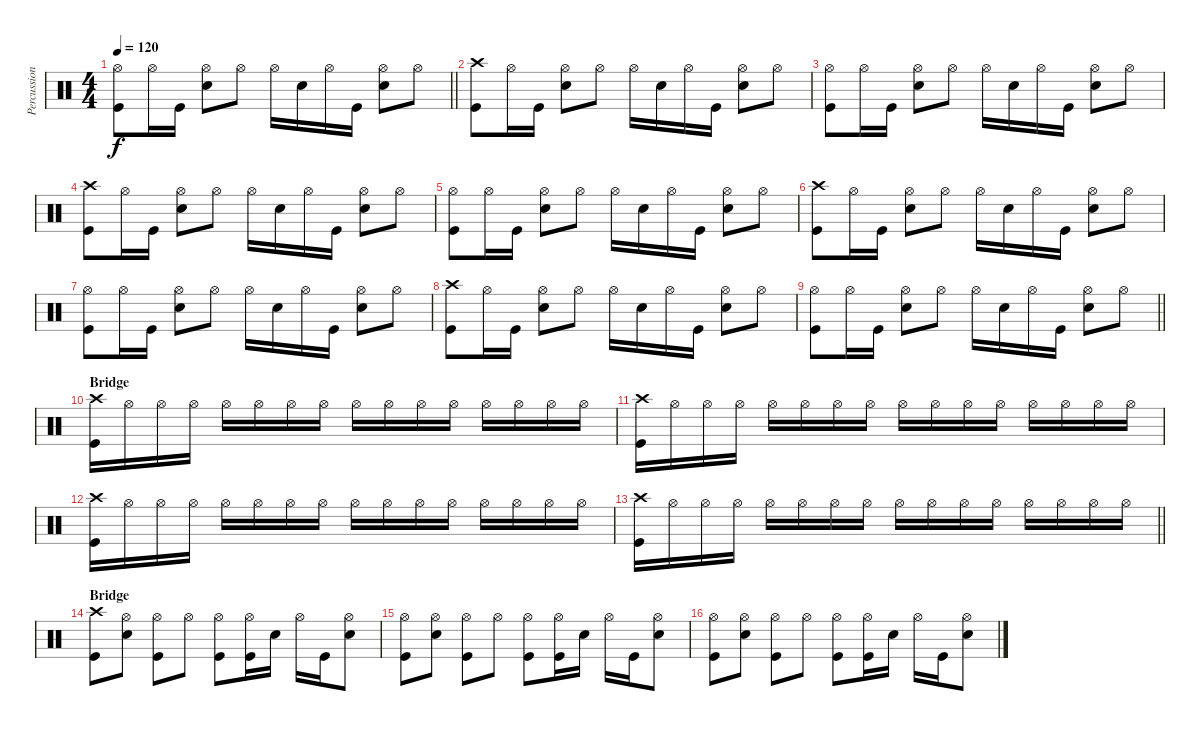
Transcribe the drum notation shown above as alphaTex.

\track ("Percussion" "Percussion") {instrument percussion}
\staff {score}
\articulation defaults
\ts (4 4)
\tempo 120
\clef neutral
\barLineRight lightlight
\ks c
("Hi-Hat (open)" "Kick (hit)").8{dy f} "Hi-Hat (open)".16 "Kick (hit)".16 ("Hi-Hat (open)" "Snare (hit) 2").8 "Hi-Hat (open)".8 "Hi-Hat (open)".16 "Snare (hit) 2".16 "Hi-Hat (open)".16 "Kick (hit)".16 ("Hi-Hat (open)" "Snare (hit) 2").8 "Hi-Hat (open)".8 |
("Crash high (hit)" "Kick (hit)").8 "Hi-Hat (open)".16 "Kick (hit)".16 ("Hi-Hat (open)" "Snare (hit) 2").8 "Hi-Hat (open)".8 "Hi-Hat (open)".16 "Snare (hit) 2".16 "Hi-Hat (open)".16 "Kick (hit)".16 ("Hi-Hat (open)" "Snare (hit) 2").8 "Hi-Hat (open)".8 |
("Hi-Hat (open)" "Kick (hit)").8 "Hi-Hat (open)".16 "Kick (hit)".16 ("Hi-Hat (open)" "Snare (hit) 2").8 "Hi-Hat (open)".8 "Hi-Hat (open)".16 "Snare (hit) 2".16 "Hi-Hat (open)".16 "Kick (hit)".16 ("Hi-Hat (open)" "Snare (hit) 2").8 "Hi-Hat (open)".8 |
("Crash high (hit)" "Kick (hit)").8 "Hi-Hat (open)".16 "Kick (hit)".16 ("Hi-Hat (open)" "Snare (hit) 2").8 "Hi-Hat (open)".8 "Hi-Hat (open)".16 "Snare (hit) 2".16 "Hi-Hat (open)".16 "Kick (hit)".16 ("Hi-Hat (open)" "Snare (hit) 2").8 "Hi-Hat (open)".8 |
("Hi-Hat (open)" "Kick (hit)").8 "Hi-Hat (open)".16 "Kick (hit)".16 ("Hi-Hat (open)" "Snare (hit) 2").8 "Hi-Hat (open)".8 "Hi-Hat (open)".16 "Snare (hit) 2".16 "Hi-Hat (open)".16 "Kick (hit)".16 ("Hi-Hat (open)" "Snare (hit) 2").8 "Hi-Hat (open)".8 |
("Crash high (hit)" "Kick (hit)").8 "Hi-Hat (open)".16 "Kick (hit)".16 ("Hi-Hat (open)" "Snare (hit) 2").8 "Hi-Hat (open)".8 "Hi-Hat (open)".16 "Snare (hit) 2".16 "Hi-Hat (open)".16 "Kick (hit)".16 ("Hi-Hat (open)" "Snare (hit) 2").8 "Hi-Hat (open)".8 |
("Hi-Hat (open)" "Kick (hit)").8 "Hi-Hat (open)".16 "Kick (hit)".16 ("Hi-Hat (open)" "Snare (hit) 2").8 "Hi-Hat (open)".8 "Hi-Hat (open)".16 "Snare (hit) 2".16 "Hi-Hat (open)".16 "Kick (hit)".16 ("Hi-Hat (open)" "Snare (hit) 2").8 "Hi-Hat (open)".8 |
("Crash high (hit)" "Kick (hit)").8 "Hi-Hat (open)".16 "Kick (hit)".16 ("Hi-Hat (open)" "Snare (hit) 2").8 "Hi-Hat (open)".8 "Hi-Hat (open)".16 "Snare (hit) 2".16 "Hi-Hat (open)".16 "Kick (hit)".16 ("Hi-Hat (open)" "Snare (hit) 2").8 "Hi-Hat (open)".8 |
\barLineRight lightlight
("Hi-Hat (open)" "Kick (hit)").8 "Hi-Hat (open)".16 "Kick (hit)".16 ("Hi-Hat (open)" "Snare (hit) 2").8 "Hi-Hat (open)".8 "Hi-Hat (open)".16 "Snare (hit) 2".16 "Hi-Hat (open)".16 "Kick (hit)".16 ("Hi-Hat (open)" "Snare (hit) 2").8 "Hi-Hat (open)".8 |
\section ("" "Bridge")
("Crash high (hit)" "Kick (hit)").16 "Hi-Hat (open)".16 "Hi-Hat (open)".16 "Hi-Hat (open)".16 "Hi-Hat (open)".16 "Hi-Hat (open)".16 "Hi-Hat (open)".16 "Hi-Hat (open)".16 "Hi-Hat (open)".16 "Hi-Hat (open)".16 "Hi-Hat (open)".16 "Hi-Hat (open)".16 "Hi-Hat (open)".16 "Hi-Hat (open)".16 "Hi-Hat (open)".16 "Hi-Hat (open)".16 |
("Crash high (hit)" "Kick (hit)").16 "Hi-Hat (open)".16 "Hi-Hat (open)".16 "Hi-Hat (open)".16 "Hi-Hat (open)".16 "Hi-Hat (open)".16 "Hi-Hat (open)".16 "Hi-Hat (open)".16 "Hi-Hat (open)".16 "Hi-Hat (open)".16 "Hi-Hat (open)".16 "Hi-Hat (open)".16 "Hi-Hat (open)".16 "Hi-Hat (open)".16 "Hi-Hat (open)".16 "Hi-Hat (open)".16 |
("Crash high (hit)" "Kick (hit)").16 "Hi-Hat (open)".16 "Hi-Hat (open)".16 "Hi-Hat (open)".16 "Hi-Hat (open)".16 "Hi-Hat (open)".16 "Hi-Hat (open)".16 "Hi-Hat (open)".16 "Hi-Hat (open)".16 "Hi-Hat (open)".16 "Hi-Hat (open)".16 "Hi-Hat (open)".16 "Hi-Hat (open)".16 "Hi-Hat (open)".16 "Hi-Hat (open)".16 "Hi-Hat (open)".16 |
\barLineRight lightlight
("Crash high (hit)" "Kick (hit)").16 "Hi-Hat (open)".16 "Hi-Hat (open)".16 "Hi-Hat (open)".16 "Hi-Hat (open)".16 "Hi-Hat (open)".16 "Hi-Hat (open)".16 "Hi-Hat (open)".16 "Hi-Hat (open)".16 "Hi-Hat (open)".16 "Hi-Hat (open)".16 "Hi-Hat (open)".16 "Hi-Hat (open)".16 "Hi-Hat (open)".16 "Hi-Hat (open)".16 "Hi-Hat (open)".16 |
\section ("" "Bridge")
("Crash high (hit)" "Kick (hit)").8 ("Hi-Hat (open)" "Snare (hit) 2").8 ("Hi-Hat (open)" "Kick (hit)").8 "Hi-Hat (open)".8 ("Hi-Hat (open)" "Kick (hit)").8 ("Hi-Hat (open)" "Kick (hit)").16 "Snare (hit) 2".16 "Hi-Hat (open)".16 "Kick (hit)".16 ("Hi-Hat (open)" "Snare (hit) 2").8 |
("Hi-Hat (open)" "Kick (hit)").8 ("Hi-Hat (open)" "Snare (hit) 2").8 ("Hi-Hat (open)" "Kick (hit)").8 "Hi-Hat (open)".8 ("Hi-Hat (open)" "Kick (hit)").8 ("Hi-Hat (open)" "Kick (hit)").16 "Snare (hit) 2".16 "Hi-Hat (open)".16 "Kick (hit)".16 ("Hi-Hat (open)" "Snare (hit) 2").8 |
("Hi-Hat (open)" "Kick (hit)").8 ("Hi-Hat (open)" "Snare (hit) 2").8 ("Hi-Hat (open)" "Kick (hit)").8 "Hi-Hat (open)".8 ("Hi-Hat (open)" "Kick (hit)").8 ("Hi-Hat (open)" "Kick (hit)").16 "Snare (hit) 2".16 "Hi-Hat (open)".16 "Kick (hit)".16 ("Hi-Hat (open)" "Snare (hit) 2").8
